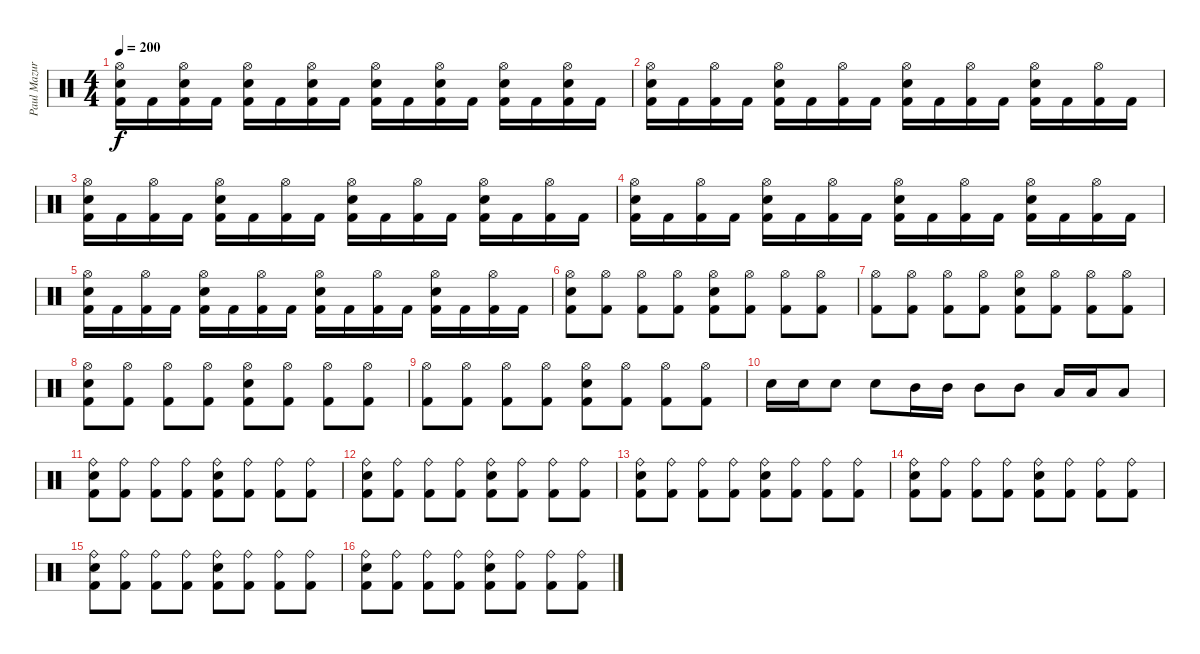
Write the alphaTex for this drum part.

\track ("Paul Mazurkiewicz" "Paul Mazur") {instrument percussion}
\staff {score}
\articulation defaults
\ts (4 4)
\tempo 200
\clef neutral
\ks c
("Hi-Hat (open)" "Snare (hit) 2" "Kick (hit) 2").16{dy f} "Kick (hit) 2".16 ("Hi-Hat (open)" "Snare (hit) 2" "Kick (hit) 2").16 "Kick (hit) 2".16 ("Hi-Hat (open)" "Snare (hit) 2" "Kick (hit) 2").16 "Kick (hit) 2".16 ("Hi-Hat (open)" "Snare (hit) 2" "Kick (hit) 2").16 "Kick (hit) 2".16 ("Hi-Hat (open)" "Snare (hit) 2" "Kick (hit) 2").16 "Kick (hit) 2".16 ("Hi-Hat (open)" "Snare (hit) 2" "Kick (hit) 2").16 "Kick (hit) 2".16 ("Hi-Hat (open)" "Snare (hit) 2" "Kick (hit) 2").16 "Kick (hit) 2".16 ("Hi-Hat (open)" "Snare (hit) 2" "Kick (hit) 2").16 "Kick (hit) 2".16 |
("Hi-Hat (open)" "Snare (hit) 2" "Kick (hit) 2").16 "Kick (hit) 2".16 ("Hi-Hat (open)" "Kick (hit) 2").16 "Kick (hit) 2".16 ("Hi-Hat (open)" "Snare (hit) 2" "Kick (hit) 2").16 "Kick (hit) 2".16 ("Hi-Hat (open)" "Kick (hit) 2").16 "Kick (hit) 2".16 ("Hi-Hat (open)" "Snare (hit) 2" "Kick (hit) 2").16 "Kick (hit) 2".16 ("Hi-Hat (open)" "Kick (hit) 2").16 "Kick (hit) 2".16 ("Hi-Hat (open)" "Snare (hit) 2" "Kick (hit) 2").16 "Kick (hit) 2".16 ("Hi-Hat (open)" "Kick (hit) 2").16 "Kick (hit) 2".16 |
("Hi-Hat (open)" "Snare (hit) 2" "Kick (hit) 2").16 "Kick (hit) 2".16 ("Hi-Hat (open)" "Kick (hit) 2").16 "Kick (hit) 2".16 ("Hi-Hat (open)" "Snare (hit) 2" "Kick (hit) 2").16 "Kick (hit) 2".16 ("Hi-Hat (open)" "Kick (hit) 2").16 "Kick (hit) 2".16 ("Hi-Hat (open)" "Snare (hit) 2" "Kick (hit) 2").16 "Kick (hit) 2".16 ("Hi-Hat (open)" "Kick (hit) 2").16 "Kick (hit) 2".16 ("Hi-Hat (open)" "Snare (hit) 2" "Kick (hit) 2").16 "Kick (hit) 2".16 ("Hi-Hat (open)" "Kick (hit) 2").16 "Kick (hit) 2".16 |
("Hi-Hat (open)" "Snare (hit) 2" "Kick (hit) 2").16 "Kick (hit) 2".16 ("Hi-Hat (open)" "Kick (hit) 2").16 "Kick (hit) 2".16 ("Hi-Hat (open)" "Snare (hit) 2" "Kick (hit) 2").16 "Kick (hit) 2".16 ("Hi-Hat (open)" "Kick (hit) 2").16 "Kick (hit) 2".16 ("Hi-Hat (open)" "Snare (hit) 2" "Kick (hit) 2").16 "Kick (hit) 2".16 ("Hi-Hat (open)" "Kick (hit) 2").16 "Kick (hit) 2".16 ("Hi-Hat (open)" "Snare (hit) 2" "Kick (hit) 2").16 "Kick (hit) 2".16 ("Hi-Hat (open)" "Kick (hit) 2").16 "Kick (hit) 2".16 |
("Hi-Hat (open)" "Snare (hit) 2" "Kick (hit) 2").16 "Kick (hit) 2".16 ("Hi-Hat (open)" "Kick (hit) 2").16 "Kick (hit) 2".16 ("Hi-Hat (open)" "Snare (hit) 2" "Kick (hit) 2").16 "Kick (hit) 2".16 ("Hi-Hat (open)" "Kick (hit) 2").16 "Kick (hit) 2".16 ("Hi-Hat (open)" "Snare (hit) 2" "Kick (hit) 2").16 "Kick (hit) 2".16 ("Hi-Hat (open)" "Kick (hit) 2").16 "Kick (hit) 2".16 ("Hi-Hat (open)" "Snare (hit) 2" "Kick (hit) 2").16 "Kick (hit) 2".16 ("Hi-Hat (open)" "Kick (hit) 2").16 "Kick (hit) 2".16 |
("Hi-Hat (open)" "Snare (hit) 2" "Kick (hit) 2").8 ("Hi-Hat (open)" "Kick (hit) 2").8 ("Hi-Hat (open)" "Kick (hit) 2").8 ("Hi-Hat (open)" "Kick (hit) 2").8 ("Hi-Hat (open)" "Snare (hit) 2" "Kick (hit) 2").8 ("Hi-Hat (open)" "Kick (hit) 2").8 ("Hi-Hat (open)" "Kick (hit) 2").8 ("Hi-Hat (open)" "Kick (hit) 2").8 |
("Hi-Hat (open)" "Kick (hit) 2").8 ("Hi-Hat (open)" "Kick (hit) 2").8 ("Hi-Hat (open)" "Kick (hit) 2").8 ("Hi-Hat (open)" "Kick (hit) 2").8 ("Hi-Hat (open)" "Snare (hit) 2" "Kick (hit) 2").8 ("Hi-Hat (open)" "Kick (hit) 2").8 ("Hi-Hat (open)" "Kick (hit) 2").8 ("Hi-Hat (open)" "Kick (hit) 2").8 |
("Hi-Hat (open)" "Snare (hit) 2" "Kick (hit) 2").8 ("Hi-Hat (open)" "Kick (hit) 2").8 ("Hi-Hat (open)" "Kick (hit) 2").8 ("Hi-Hat (open)" "Kick (hit) 2").8 ("Hi-Hat (open)" "Snare (hit) 2" "Kick (hit) 2").8 ("Hi-Hat (open)" "Kick (hit) 2").8 ("Hi-Hat (open)" "Kick (hit) 2").8 ("Hi-Hat (open)" "Kick (hit) 2").8 |
("Hi-Hat (open)" "Kick (hit) 2").8 ("Hi-Hat (open)" "Kick (hit) 2").8 ("Hi-Hat (open)" "Kick (hit) 2").8 ("Hi-Hat (open)" "Kick (hit) 2").8 ("Hi-Hat (open)" "Snare (hit) 2" "Kick (hit) 2").8 ("Hi-Hat (open)" "Kick (hit) 2").8 ("Hi-Hat (open)" "Kick (hit) 2").8 ("Hi-Hat (open)" "Kick (hit) 2").8 |
"Snare (hit) 2".16 "Snare (hit) 2".16 "Snare (hit) 2".8 "Snare (hit) 2".8 "Mid Tom (hit)".16 "Mid Tom (hit)".16 "Mid Tom (hit)".8 "Mid Tom (hit)".8 "Low Tom (hit)".16 "Low Tom (hit)".16 "Low Tom (hit)".8 |
("Ride (bell)" "Snare (hit) 2" "Kick (hit) 2").8 ("Ride (bell)" "Kick (hit) 2").8 ("Ride (bell)" "Kick (hit) 2").8 ("Ride (bell)" "Kick (hit) 2").8 ("Ride (bell)" "Snare (hit) 2" "Kick (hit) 2").8 ("Ride (bell)" "Kick (hit) 2").8 ("Ride (bell)" "Kick (hit) 2").8 ("Ride (bell)" "Kick (hit) 2").8 |
("Ride (bell)" "Snare (hit) 2" "Kick (hit) 2").8 ("Ride (bell)" "Kick (hit) 2").8 ("Ride (bell)" "Kick (hit) 2").8 ("Ride (bell)" "Kick (hit) 2").8 ("Ride (bell)" "Snare (hit) 2" "Kick (hit) 2").8 ("Ride (bell)" "Kick (hit) 2").8 ("Ride (bell)" "Kick (hit) 2").8 ("Ride (bell)" "Kick (hit) 2").8 |
("Ride (bell)" "Snare (hit) 2" "Kick (hit) 2").8 ("Ride (bell)" "Kick (hit) 2").8 ("Ride (bell)" "Kick (hit) 2").8 ("Ride (bell)" "Kick (hit) 2").8 ("Ride (bell)" "Snare (hit) 2" "Kick (hit) 2").8 ("Ride (bell)" "Kick (hit) 2").8 ("Ride (bell)" "Kick (hit) 2").8 ("Ride (bell)" "Kick (hit) 2").8 |
("Ride (bell)" "Snare (hit) 2" "Kick (hit) 2").8 ("Ride (bell)" "Kick (hit) 2").8 ("Ride (bell)" "Kick (hit) 2").8 ("Ride (bell)" "Kick (hit) 2").8 ("Ride (bell)" "Snare (hit) 2" "Kick (hit) 2").8 ("Ride (bell)" "Kick (hit) 2").8 ("Ride (bell)" "Kick (hit) 2").8 ("Ride (bell)" "Kick (hit) 2").8 |
("Ride (bell)" "Snare (hit) 2" "Kick (hit) 2").8 ("Ride (bell)" "Kick (hit) 2").8 ("Ride (bell)" "Kick (hit) 2").8 ("Ride (bell)" "Kick (hit) 2").8 ("Ride (bell)" "Snare (hit) 2" "Kick (hit) 2").8 ("Ride (bell)" "Kick (hit) 2").8 ("Ride (bell)" "Kick (hit) 2").8 ("Ride (bell)" "Kick (hit) 2").8 |
("Ride (bell)" "Snare (hit) 2" "Kick (hit) 2").8 ("Ride (bell)" "Kick (hit) 2").8 ("Ride (bell)" "Kick (hit) 2").8 ("Ride (bell)" "Kick (hit) 2").8 ("Ride (bell)" "Snare (hit) 2" "Kick (hit) 2").8 ("Ride (bell)" "Kick (hit) 2").8 ("Ride (bell)" "Kick (hit) 2").8 ("Ride (bell)" "Kick (hit) 2").8
